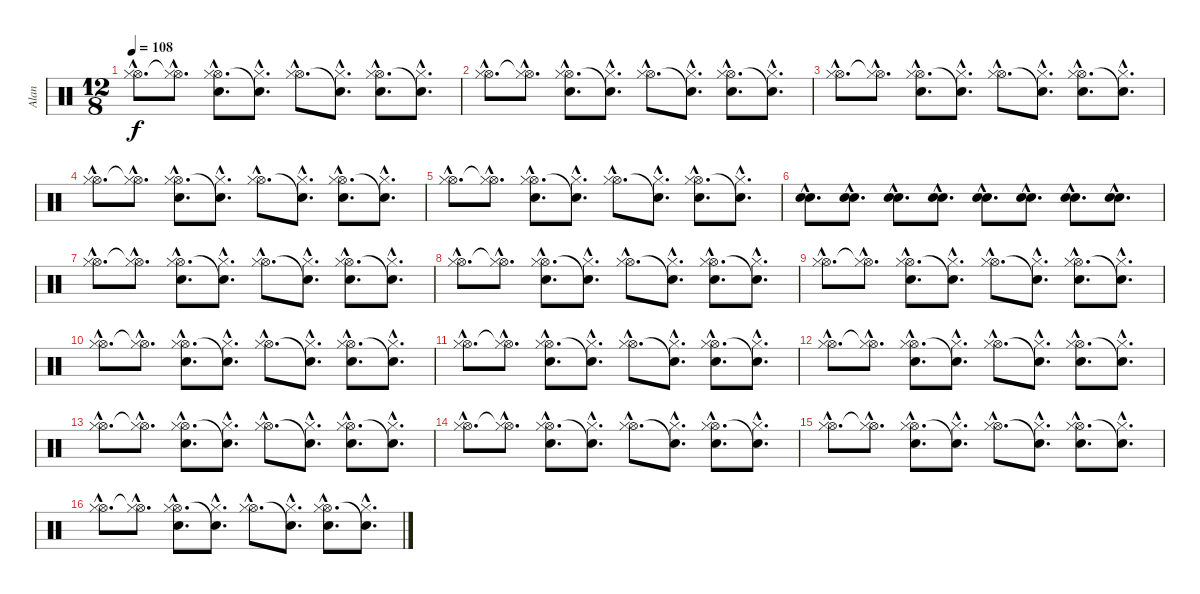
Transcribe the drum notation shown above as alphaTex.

\track ("Alan" "Alan") {instrument percussion}
\staff {score}
\articulation defaults
\ts (12 8)
\tempo 108
\clef neutral
\ks c
("Hi-Hat (open)"{hac} "Hi-Hat (closed)"{hac}).8{d dy f} ("Hi-Hat (open)"{hac t} "Hi-Hat (closed)"{hac}).8{d} ("Hi-Hat (open)"{hac} "Snare (hit) 2"{hac} "Hi-Hat (closed)"{hac}).8{d} ("Snare (hit)"{hac t} "Hi-Hat (closed)"{hac}).8{d} ("Hi-Hat (open)"{hac} "Hi-Hat (closed)"{hac}).8{d} ("Snare (hit)"{hac t} "Hi-Hat (closed)"{hac}).8{d} ("Hi-Hat (open)"{hac} "Snare (hit) 2"{hac} "Hi-Hat (closed)"{hac}).8{d} ("Snare (hit)"{hac t} "Hi-Hat (closed)"{hac}).8{d} |
("Hi-Hat (open)"{hac} "Hi-Hat (closed)"{hac}).8{d} ("Hi-Hat (open)"{hac t} "Hi-Hat (closed)"{hac}).8{d} ("Hi-Hat (open)"{hac} "Snare (hit) 2"{hac} "Hi-Hat (closed)"{hac}).8{d} ("Snare (hit)"{hac t} "Hi-Hat (closed)"{hac}).8{d} ("Hi-Hat (open)"{hac} "Hi-Hat (closed)"{hac}).8{d} ("Snare (hit)"{hac t} "Hi-Hat (closed)"{hac}).8{d} ("Hi-Hat (open)"{hac} "Snare (hit) 2"{hac} "Hi-Hat (closed)"{hac}).8{d} ("Snare (hit)"{hac t} "Hi-Hat (closed)"{hac}).8{d} |
("Hi-Hat (open)"{hac} "Hi-Hat (closed)"{hac}).8{d} ("Hi-Hat (open)"{hac t} "Hi-Hat (closed)"{hac}).8{d} ("Hi-Hat (open)"{hac} "Snare (hit) 2"{hac} "Hi-Hat (closed)"{hac}).8{d} ("Snare (hit)"{hac t} "Hi-Hat (closed)"{hac}).8{d} ("Hi-Hat (open)"{hac} "Hi-Hat (closed)"{hac}).8{d} ("Snare (hit)"{hac t} "Hi-Hat (closed)"{hac}).8{d} ("Hi-Hat (open)"{hac} "Snare (hit) 2"{hac} "Hi-Hat (closed)"{hac}).8{d} ("Snare (hit)"{hac t} "Hi-Hat (closed)"{hac}).8{d} |
("Hi-Hat (open)"{hac} "Hi-Hat (closed)"{hac}).8{d} ("Hi-Hat (open)"{hac t} "Hi-Hat (closed)"{hac}).8{d} ("Hi-Hat (open)"{hac} "Snare (hit) 2"{hac} "Hi-Hat (closed)"{hac}).8{d} ("Snare (hit)"{hac t} "Hi-Hat (closed)"{hac}).8{d} ("Hi-Hat (open)"{hac} "Hi-Hat (closed)"{hac}).8{d} ("Snare (hit)"{hac t} "Hi-Hat (closed)"{hac}).8{d} ("Hi-Hat (open)"{hac} "Snare (hit) 2"{hac} "Hi-Hat (closed)"{hac}).8{d} ("Snare (hit)"{hac t} "Hi-Hat (closed)"{hac}).8{d} |
("Hi-Hat (open)"{hac} "Hi-Hat (closed)"{hac}).8{d} ("Hi-Hat (open)"{hac t} "Hi-Hat (closed)"{hac}).8{d} ("Hi-Hat (open)"{hac} "Snare (hit) 2"{hac} "Hi-Hat (closed)"{hac}).8{d} ("Snare (hit)"{hac t} "Hi-Hat (closed)"{hac}).8{d} ("Hi-Hat (open)"{hac} "Hi-Hat (closed)"{hac}).8{d} ("Snare (hit)"{hac t} "Hi-Hat (closed)"{hac}).8{d} ("Hi-Hat (open)"{hac} "Snare (hit) 2"{hac} "Hi-Hat (closed)"{hac}).8{d} ("Snare (hit)"{hac t} "Hi-Hat (closed)"{hac}).8{d} |
("Electric Snare (hit)"{hac} "Snare (hit) 2"{hac}).8{d} ("Electric Snare (hit)"{hac} "Snare (hit) 2"{hac}).8{d} ("Electric Snare (hit)"{hac} "Snare (hit) 2"{hac}).8{d} ("Electric Snare (hit)"{hac} "Snare (hit) 2"{hac}).8{d} ("Electric Snare (hit)"{hac} "Snare (hit) 2"{hac}).8{d} ("Electric Snare (hit)"{hac} "Snare (hit) 2"{hac}).8{d} ("Electric Snare (hit)"{hac} "Snare (hit) 2"{hac}).8{d} ("Electric Snare (hit)"{hac} "Snare (hit) 2"{hac}).8{d} |
("Hi-Hat (open)"{hac} "Hi-Hat (closed)"{hac}).8{d} ("Hi-Hat (open)"{hac t} "Hi-Hat (closed)"{hac}).8{d} ("Hi-Hat (open)"{hac} "Snare (hit) 2"{hac} "Hi-Hat (closed)"{hac}).8{d} ("Snare (hit)"{hac t} "Hi-Hat (closed)"{hac}).8{d} ("Hi-Hat (open)"{hac} "Hi-Hat (closed)"{hac}).8{d} ("Snare (hit)"{hac t} "Hi-Hat (closed)"{hac}).8{d} ("Hi-Hat (open)"{hac} "Snare (hit) 2"{hac} "Hi-Hat (closed)"{hac}).8{d} ("Snare (hit)"{hac t} "Hi-Hat (closed)"{hac}).8{d} |
("Hi-Hat (open)"{hac} "Hi-Hat (closed)"{hac}).8{d} ("Hi-Hat (open)"{hac t} "Hi-Hat (closed)"{hac}).8{d} ("Hi-Hat (open)"{hac} "Snare (hit) 2"{hac} "Hi-Hat (closed)"{hac}).8{d} ("Snare (hit)"{hac t} "Hi-Hat (closed)"{hac}).8{d} ("Hi-Hat (open)"{hac} "Hi-Hat (closed)"{hac}).8{d} ("Snare (hit)"{hac t} "Hi-Hat (closed)"{hac}).8{d} ("Hi-Hat (open)"{hac} "Snare (hit) 2"{hac} "Hi-Hat (closed)"{hac}).8{d} ("Snare (hit)"{hac t} "Hi-Hat (closed)"{hac}).8{d} |
("Hi-Hat (open)"{hac} "Hi-Hat (closed)"{hac}).8{d} ("Hi-Hat (open)"{hac t} "Hi-Hat (closed)"{hac}).8{d} ("Hi-Hat (open)"{hac} "Snare (hit) 2"{hac} "Hi-Hat (closed)"{hac}).8{d} ("Snare (hit)"{hac t} "Hi-Hat (closed)"{hac}).8{d} ("Hi-Hat (open)"{hac} "Hi-Hat (closed)"{hac}).8{d} ("Snare (hit)"{hac t} "Hi-Hat (closed)"{hac}).8{d} ("Hi-Hat (open)"{hac} "Snare (hit) 2"{hac} "Hi-Hat (closed)"{hac}).8{d} ("Snare (hit)"{hac t} "Hi-Hat (closed)"{hac}).8{d} |
("Hi-Hat (open)"{hac} "Hi-Hat (closed)"{hac}).8{d} ("Hi-Hat (open)"{hac t} "Hi-Hat (closed)"{hac}).8{d} ("Hi-Hat (open)"{hac} "Snare (hit) 2"{hac} "Hi-Hat (closed)"{hac}).8{d} ("Snare (hit)"{hac t} "Hi-Hat (closed)"{hac}).8{d} ("Hi-Hat (open)"{hac} "Hi-Hat (closed)"{hac}).8{d} ("Snare (hit)"{hac t} "Hi-Hat (closed)"{hac}).8{d} ("Hi-Hat (open)"{hac} "Snare (hit) 2"{hac} "Hi-Hat (closed)"{hac}).8{d} ("Snare (hit)"{hac t} "Hi-Hat (closed)"{hac}).8{d} |
("Hi-Hat (open)"{hac} "Hi-Hat (closed)"{hac}).8{d} ("Hi-Hat (open)"{hac t} "Hi-Hat (closed)"{hac}).8{d} ("Hi-Hat (open)"{hac} "Snare (hit) 2"{hac} "Hi-Hat (closed)"{hac}).8{d} ("Snare (hit)"{hac t} "Hi-Hat (closed)"{hac}).8{d} ("Hi-Hat (open)"{hac} "Hi-Hat (closed)"{hac}).8{d} ("Snare (hit)"{hac t} "Hi-Hat (closed)"{hac}).8{d} ("Hi-Hat (open)"{hac} "Snare (hit) 2"{hac} "Hi-Hat (closed)"{hac}).8{d} ("Snare (hit)"{hac t} "Hi-Hat (closed)"{hac}).8{d} |
("Hi-Hat (open)"{hac} "Hi-Hat (closed)"{hac}).8{d} ("Hi-Hat (open)"{hac t} "Hi-Hat (closed)"{hac}).8{d} ("Hi-Hat (open)"{hac} "Snare (hit) 2"{hac} "Hi-Hat (closed)"{hac}).8{d} ("Snare (hit)"{hac t} "Hi-Hat (closed)"{hac}).8{d} ("Hi-Hat (open)"{hac} "Hi-Hat (closed)"{hac}).8{d} ("Snare (hit)"{hac t} "Hi-Hat (closed)"{hac}).8{d} ("Hi-Hat (open)"{hac} "Snare (hit) 2"{hac} "Hi-Hat (closed)"{hac}).8{d} ("Snare (hit)"{hac t} "Hi-Hat (closed)"{hac}).8{d} |
("Hi-Hat (open)"{hac} "Hi-Hat (closed)"{hac}).8{d} ("Hi-Hat (open)"{hac t} "Hi-Hat (closed)"{hac}).8{d} ("Hi-Hat (open)"{hac} "Snare (hit) 2"{hac} "Hi-Hat (closed)"{hac}).8{d} ("Snare (hit)"{hac t} "Hi-Hat (closed)"{hac}).8{d} ("Hi-Hat (open)"{hac} "Hi-Hat (closed)"{hac}).8{d} ("Snare (hit)"{hac t} "Hi-Hat (closed)"{hac}).8{d} ("Hi-Hat (open)"{hac} "Snare (hit) 2"{hac} "Hi-Hat (closed)"{hac}).8{d} ("Snare (hit)"{hac t} "Hi-Hat (closed)"{hac}).8{d} |
("Hi-Hat (open)"{hac} "Hi-Hat (closed)"{hac}).8{d} ("Hi-Hat (open)"{hac t} "Hi-Hat (closed)"{hac}).8{d} ("Hi-Hat (open)"{hac} "Snare (hit) 2"{hac} "Hi-Hat (closed)"{hac}).8{d} ("Snare (hit)"{hac t} "Hi-Hat (closed)"{hac}).8{d} ("Hi-Hat (open)"{hac} "Hi-Hat (closed)"{hac}).8{d} ("Snare (hit)"{hac t} "Hi-Hat (closed)"{hac}).8{d} ("Hi-Hat (open)"{hac} "Snare (hit) 2"{hac} "Hi-Hat (closed)"{hac}).8{d} ("Snare (hit)"{hac t} "Hi-Hat (closed)"{hac}).8{d} |
("Hi-Hat (open)"{hac} "Hi-Hat (closed)"{hac}).8{d} ("Hi-Hat (open)"{hac t} "Hi-Hat (closed)"{hac}).8{d} ("Hi-Hat (open)"{hac} "Snare (hit) 2"{hac} "Hi-Hat (closed)"{hac}).8{d} ("Snare (hit)"{hac t} "Hi-Hat (closed)"{hac}).8{d} ("Hi-Hat (open)"{hac} "Hi-Hat (closed)"{hac}).8{d} ("Snare (hit)"{hac t} "Hi-Hat (closed)"{hac}).8{d} ("Hi-Hat (open)"{hac} "Snare (hit) 2"{hac} "Hi-Hat (closed)"{hac}).8{d} ("Snare (hit)"{hac t} "Hi-Hat (closed)"{hac}).8{d} |
("Hi-Hat (open)"{hac} "Hi-Hat (closed)"{hac}).8{d} ("Hi-Hat (open)"{hac t} "Hi-Hat (closed)"{hac}).8{d} ("Hi-Hat (open)"{hac} "Snare (hit) 2"{hac} "Hi-Hat (closed)"{hac}).8{d} ("Snare (hit)"{hac t} "Hi-Hat (closed)"{hac}).8{d} ("Hi-Hat (open)"{hac} "Hi-Hat (closed)"{hac}).8{d} ("Snare (hit)"{hac t} "Hi-Hat (closed)"{hac}).8{d} ("Hi-Hat (open)"{hac} "Snare (hit) 2"{hac} "Hi-Hat (closed)"{hac}).8{d} ("Snare (hit)"{hac t} "Hi-Hat (closed)"{hac}).8{d}
